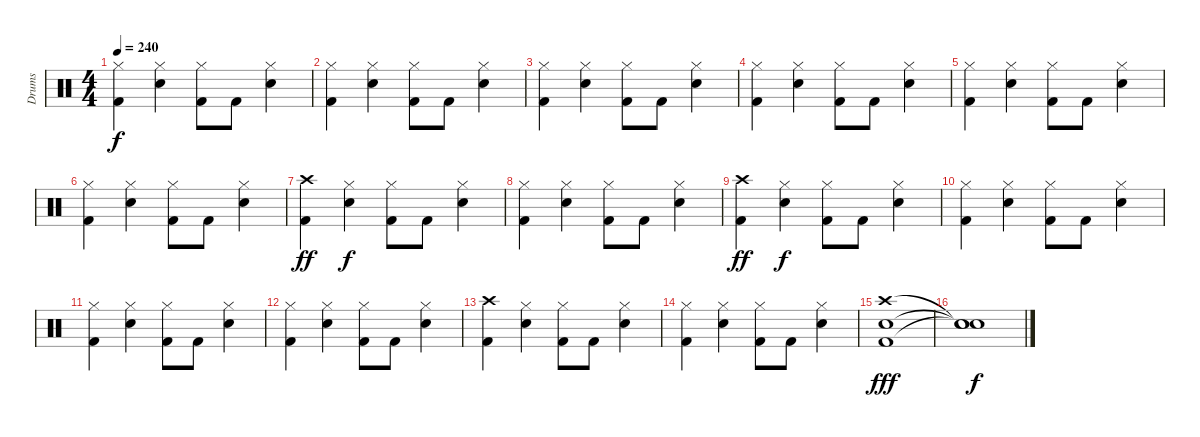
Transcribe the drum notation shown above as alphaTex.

\track ("Drums" "Drums") {instrument percussion}
\staff {score}
\articulation defaults
\ts (4 4)
\tempo 240
\clef neutral
\ks c
("Hi-Hat (closed)" "Kick (hit) 2").4{dy f} ("Hi-Hat (closed)" "Snare (hit) 2").4 ("Hi-Hat (closed)" "Kick (hit) 2").8 "Kick (hit) 2".8 ("Hi-Hat (closed)" "Snare (hit) 2").4 |
("Hi-Hat (closed)" "Kick (hit) 2").4 ("Hi-Hat (closed)" "Snare (hit) 2").4 ("Hi-Hat (closed)" "Kick (hit) 2").8 "Kick (hit) 2".8 ("Hi-Hat (closed)" "Snare (hit) 2").4 |
("Hi-Hat (closed)" "Kick (hit) 2").4 ("Hi-Hat (closed)" "Snare (hit) 2").4 ("Hi-Hat (closed)" "Kick (hit) 2").8 "Kick (hit) 2".8 ("Hi-Hat (closed)" "Snare (hit) 2").4 |
("Hi-Hat (closed)" "Kick (hit) 2").4 ("Hi-Hat (closed)" "Snare (hit) 2").4 ("Hi-Hat (closed)" "Kick (hit) 2").8 "Kick (hit) 2".8 ("Hi-Hat (closed)" "Snare (hit) 2").4 |
("Hi-Hat (closed)" "Kick (hit) 2").4 ("Hi-Hat (closed)" "Snare (hit) 2").4 ("Hi-Hat (closed)" "Kick (hit) 2").8 "Kick (hit) 2".8 ("Hi-Hat (closed)" "Snare (hit) 2").4 |
("Hi-Hat (closed)" "Kick (hit) 2").4 ("Hi-Hat (closed)" "Snare (hit) 2").4 ("Hi-Hat (closed)" "Kick (hit) 2").8 "Kick (hit) 2".8 ("Hi-Hat (closed)" "Snare (hit) 2").4 |
("Crash high (hit)" "Kick (hit) 2").4{dy ff} ("Hi-Hat (closed)" "Snare (hit) 2").4{dy f} ("Hi-Hat (closed)" "Kick (hit) 2").8 "Kick (hit) 2".8 ("Hi-Hat (closed)" "Snare (hit) 2").4 |
("Hi-Hat (closed)" "Kick (hit) 2").4 ("Hi-Hat (closed)" "Snare (hit) 2").4 ("Hi-Hat (closed)" "Kick (hit) 2").8 "Kick (hit) 2".8 ("Hi-Hat (closed)" "Snare (hit) 2").4 |
("Crash high (hit)" "Kick (hit) 2").4{dy ff} ("Hi-Hat (closed)" "Snare (hit) 2").4{dy f} ("Hi-Hat (closed)" "Kick (hit) 2").8 "Kick (hit) 2".8 ("Hi-Hat (closed)" "Snare (hit) 2").4 |
("Hi-Hat (closed)" "Kick (hit) 2").4 ("Hi-Hat (closed)" "Snare (hit) 2").4 ("Hi-Hat (closed)" "Kick (hit) 2").8 "Kick (hit) 2".8 ("Hi-Hat (closed)" "Snare (hit) 2").4 |
("Hi-Hat (closed)" "Kick (hit) 2").4 ("Hi-Hat (closed)" "Snare (hit) 2").4 ("Hi-Hat (closed)" "Kick (hit) 2").8 "Kick (hit) 2".8 ("Hi-Hat (closed)" "Snare (hit) 2").4 |
("Hi-Hat (closed)" "Kick (hit) 2").4 ("Hi-Hat (closed)" "Snare (hit) 2").4 ("Hi-Hat (closed)" "Kick (hit) 2").8 "Kick (hit) 2".8 ("Hi-Hat (closed)" "Snare (hit) 2").4 |
("Crash high (hit)" "Kick (hit) 2").4 ("Hi-Hat (closed)" "Snare (hit) 2").4 ("Hi-Hat (closed)" "Kick (hit) 2").8 "Kick (hit) 2".8 ("Hi-Hat (closed)" "Snare (hit) 2").4 |
("Hi-Hat (closed)" "Kick (hit) 2").4 ("Hi-Hat (closed)" "Snare (hit) 2").4 ("Hi-Hat (closed)" "Kick (hit) 2").8 "Kick (hit) 2".8 ("Hi-Hat (closed)" "Snare (hit) 2").4 |
("Crash high (hit)" "Snare (hit) 2" "Kick (hit) 2").1{dy fff} |
("Snare (hit)"{t} "Snare (hit)"{t} "Snare (hit)"{t}).1{dy f}
